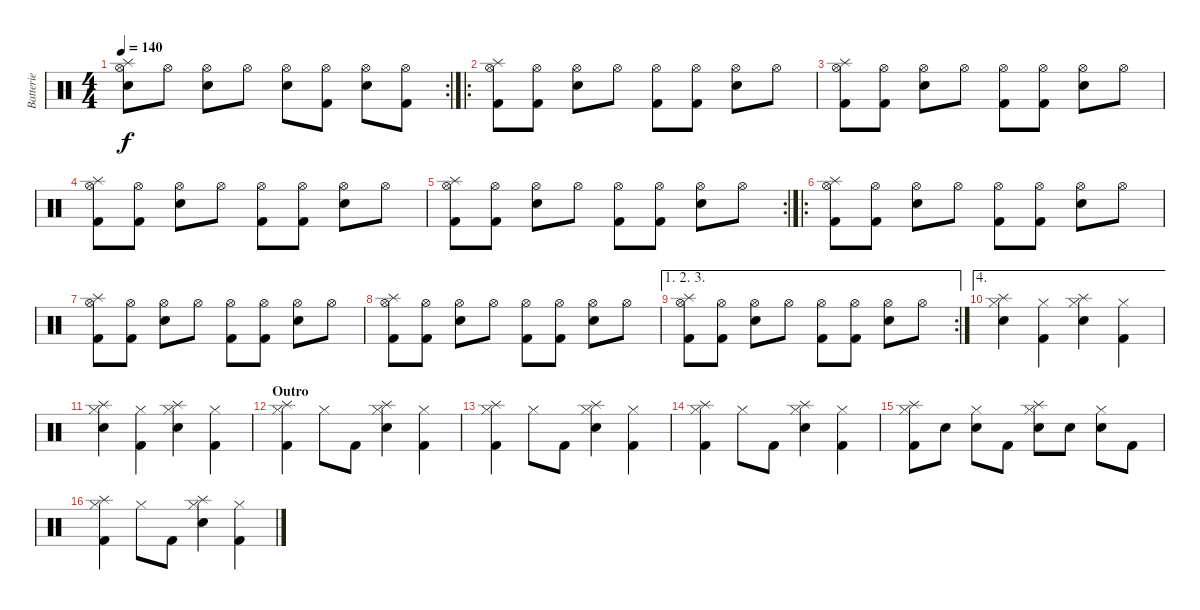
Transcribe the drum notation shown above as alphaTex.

\track ("Batterie" "Batterie") {instrument percussion}
\staff {score}
\articulation defaults
\rc 2
\ts (4 4)
\tempo 140
\clef neutral
\ks c
("Splash (hit)" "Hi-Hat (open)" "Snare (hit) 2").8{dy f} "Hi-Hat (open)".8 ("Hi-Hat (open)" "Snare (hit) 2").8 "Hi-Hat (open)".8 ("Hi-Hat (open)" "Snare (hit) 2").8 ("Hi-Hat (open)" "Kick (hit) 2").8 ("Hi-Hat (open)" "Snare (hit) 2").8 ("Hi-Hat (open)" "Kick (hit) 2").8 |
\ro
("Splash (hit)" "Hi-Hat (open)" "Kick (hit) 2").8 ("Hi-Hat (open)" "Kick (hit) 2").8 ("Hi-Hat (open)" "Snare (hit) 2").8 "Hi-Hat (open)".8 ("Hi-Hat (open)" "Kick (hit) 2").8 ("Hi-Hat (open)" "Kick (hit) 2").8 ("Hi-Hat (open)" "Snare (hit) 2").8 "Hi-Hat (open)".8 |
("Splash (hit)" "Hi-Hat (open)" "Kick (hit) 2").8 ("Hi-Hat (open)" "Kick (hit) 2").8 ("Hi-Hat (open)" "Snare (hit) 2").8 "Hi-Hat (open)".8 ("Hi-Hat (open)" "Kick (hit) 2").8 ("Hi-Hat (open)" "Kick (hit) 2").8 ("Hi-Hat (open)" "Snare (hit) 2").8 "Hi-Hat (open)".8 |
("Splash (hit)" "Hi-Hat (open)" "Kick (hit) 2").8 ("Hi-Hat (open)" "Kick (hit) 2").8 ("Hi-Hat (open)" "Snare (hit) 2").8 "Hi-Hat (open)".8 ("Hi-Hat (open)" "Kick (hit) 2").8 ("Hi-Hat (open)" "Kick (hit) 2").8 ("Hi-Hat (open)" "Snare (hit) 2").8 "Hi-Hat (open)".8 |
\rc 2
("Splash (hit)" "Hi-Hat (open)" "Kick (hit) 2").8 ("Hi-Hat (open)" "Kick (hit) 2").8 ("Hi-Hat (open)" "Snare (hit) 2").8 "Hi-Hat (open)".8 ("Hi-Hat (open)" "Kick (hit) 2").8 ("Hi-Hat (open)" "Kick (hit) 2").8 ("Hi-Hat (open)" "Snare (hit) 2").8 "Hi-Hat (open)".8 |
\ro
("Splash (hit)" "Hi-Hat (open)" "Kick (hit) 2").8 ("Hi-Hat (open)" "Kick (hit) 2").8 ("Hi-Hat (open)" "Snare (hit) 2").8 "Hi-Hat (open)".8 ("Hi-Hat (open)" "Kick (hit) 2").8 ("Hi-Hat (open)" "Kick (hit) 2").8 ("Hi-Hat (open)" "Snare (hit) 2").8 "Hi-Hat (open)".8 |
("Splash (hit)" "Hi-Hat (open)" "Kick (hit) 2").8 ("Hi-Hat (open)" "Kick (hit) 2").8 ("Hi-Hat (open)" "Snare (hit) 2").8 "Hi-Hat (open)".8 ("Hi-Hat (open)" "Kick (hit) 2").8 ("Hi-Hat (open)" "Kick (hit) 2").8 ("Hi-Hat (open)" "Snare (hit) 2").8 "Hi-Hat (open)".8 |
("Splash (hit)" "Hi-Hat (open)" "Kick (hit) 2").8 ("Hi-Hat (open)" "Kick (hit) 2").8 ("Hi-Hat (open)" "Snare (hit) 2").8 "Hi-Hat (open)".8 ("Hi-Hat (open)" "Kick (hit) 2").8 ("Hi-Hat (open)" "Kick (hit) 2").8 ("Hi-Hat (open)" "Snare (hit) 2").8 "Hi-Hat (open)".8 |
\ae (1 2 3)
\rc 2
("Splash (hit)" "Hi-Hat (open)" "Kick (hit) 2").8 ("Hi-Hat (open)" "Kick (hit) 2").8 ("Hi-Hat (open)" "Snare (hit) 2").8 "Hi-Hat (open)".8 ("Hi-Hat (open)" "Kick (hit) 2").8 ("Hi-Hat (open)" "Kick (hit) 2").8 ("Hi-Hat (open)" "Snare (hit) 2").8 "Hi-Hat (open)".8 |
\ae 4
("Splash (hit)" "Hi-Hat (closed)" "Snare (hit) 2").4 ("Hi-Hat (closed)" "Kick (hit) 2").4 ("Splash (hit)" "Hi-Hat (closed)" "Snare (hit) 2").4 ("Hi-Hat (closed)" "Kick (hit) 2").4 |
("Splash (hit)" "Hi-Hat (closed)" "Snare (hit) 2").4 ("Hi-Hat (closed)" "Kick (hit) 2").4 ("Splash (hit)" "Hi-Hat (closed)" "Snare (hit) 2").4 ("Hi-Hat (closed)" "Kick (hit) 2").4 |
\section ("" "Outro")
("Splash (hit)" "Hi-Hat (closed)" "Kick (hit) 2").4 "Hi-Hat (closed)".8 "Kick (hit) 2".8 ("Splash (hit)" "Hi-Hat (closed)" "Snare (hit) 2").4 ("Hi-Hat (closed)" "Kick (hit) 2").4 |
("Splash (hit)" "Hi-Hat (closed)" "Kick (hit) 2").4 "Hi-Hat (closed)".8 "Kick (hit) 2".8 ("Splash (hit)" "Hi-Hat (closed)" "Snare (hit) 2").4 ("Hi-Hat (closed)" "Kick (hit) 2").4 |
("Splash (hit)" "Hi-Hat (closed)" "Kick (hit) 2").4 "Hi-Hat (closed)".8 "Kick (hit) 2".8 ("Splash (hit)" "Hi-Hat (closed)" "Snare (hit) 2").4 ("Hi-Hat (closed)" "Kick (hit) 2").4 |
("Splash (hit)" "Hi-Hat (closed)" "Kick (hit) 2").8 "Snare (hit) 2".8 ("Hi-Hat (closed)" "Snare (hit) 2").8 "Kick (hit) 2".8 ("Splash (hit)" "Hi-Hat (closed)" "Snare (hit) 2").8 "Snare (hit) 2".8 ("Hi-Hat (closed)" "Snare (hit) 2").8 "Kick (hit) 2".8 |
("Splash (hit)" "Hi-Hat (closed)" "Kick (hit) 2").4 "Hi-Hat (closed)".8 "Kick (hit) 2".8 ("Splash (hit)" "Hi-Hat (closed)" "Snare (hit) 2").4 ("Hi-Hat (closed)" "Kick (hit) 2").4
